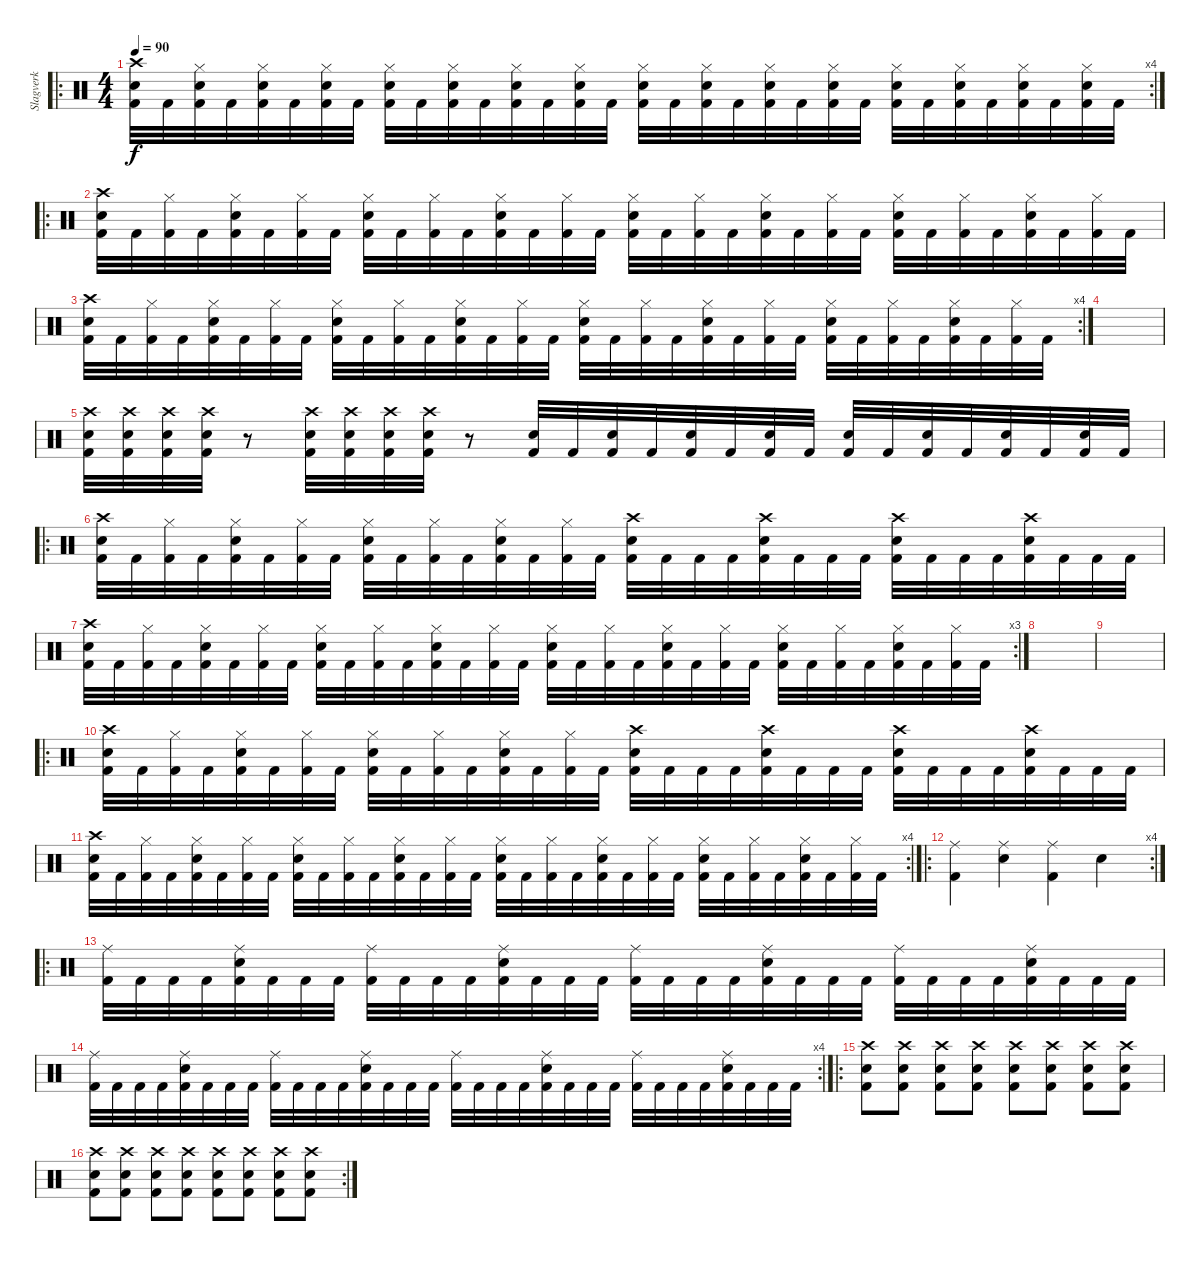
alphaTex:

\track ("Slagverk" "Slagverk") {instrument percussion}
\staff {score}
\articulation defaults
\ro
\rc 4
\ts (4 4)
\tempo 90
\clef neutral
\ks c
("Crash high (hit)" "Snare (hit) 2" "Kick (hit) 2").32{dy f} "Kick (hit) 2".32 ("Hi-Hat (closed)" "Snare (hit) 2" "Kick (hit) 2").32 "Kick (hit) 2".32 ("Hi-Hat (closed)" "Snare (hit) 2" "Kick (hit) 2").32 "Kick (hit) 2".32 ("Hi-Hat (closed)" "Snare (hit) 2" "Kick (hit) 2").32 "Kick (hit) 2".32 ("Hi-Hat (closed)" "Snare (hit) 2" "Kick (hit) 2").32 "Kick (hit) 2".32 ("Hi-Hat (closed)" "Snare (hit) 2" "Kick (hit) 2").32 "Kick (hit) 2".32 ("Hi-Hat (closed)" "Snare (hit) 2" "Kick (hit) 2").32 "Kick (hit) 2".32 ("Hi-Hat (closed)" "Snare (hit) 2" "Kick (hit) 2").32 "Kick (hit) 2".32 ("Hi-Hat (closed)" "Snare (hit) 2" "Kick (hit) 2").32 "Kick (hit) 2".32 ("Hi-Hat (closed)" "Snare (hit) 2" "Kick (hit) 2").32 "Kick (hit) 2".32 ("Hi-Hat (closed)" "Snare (hit) 2" "Kick (hit) 2").32 "Kick (hit) 2".32 ("Hi-Hat (closed)" "Snare (hit) 2" "Kick (hit) 2").32 "Kick (hit) 2".32 ("Hi-Hat (closed)" "Snare (hit) 2" "Kick (hit) 2").32 "Kick (hit) 2".32 ("Hi-Hat (closed)" "Snare (hit) 2" "Kick (hit) 2").32 "Kick (hit) 2".32 ("Hi-Hat (closed)" "Snare (hit) 2" "Kick (hit) 2").32 "Kick (hit) 2".32 ("Hi-Hat (closed)" "Snare (hit) 2" "Kick (hit) 2").32 "Kick (hit) 2".32 |
\ro
("Crash high (hit)" "Snare (hit) 2" "Kick (hit) 2").32 "Kick (hit) 2".32 ("Hi-Hat (closed)" "Kick (hit) 2").32 "Kick (hit) 2".32 ("Hi-Hat (closed)" "Snare (hit) 2" "Kick (hit) 2").32 "Kick (hit) 2".32 ("Hi-Hat (closed)" "Kick (hit) 2").32 "Kick (hit) 2".32 ("Hi-Hat (closed)" "Snare (hit) 2" "Kick (hit) 2").32 "Kick (hit) 2".32 ("Hi-Hat (closed)" "Kick (hit) 2").32 "Kick (hit) 2".32 ("Hi-Hat (closed)" "Snare (hit) 2" "Kick (hit) 2").32 "Kick (hit) 2".32 ("Hi-Hat (closed)" "Kick (hit) 2").32 "Kick (hit) 2".32 ("Hi-Hat (closed)" "Snare (hit) 2" "Kick (hit) 2").32 "Kick (hit) 2".32 ("Hi-Hat (closed)" "Kick (hit) 2").32 "Kick (hit) 2".32 ("Hi-Hat (closed)" "Snare (hit) 2" "Kick (hit) 2").32 "Kick (hit) 2".32 ("Hi-Hat (closed)" "Kick (hit) 2").32 "Kick (hit) 2".32 ("Hi-Hat (closed)" "Snare (hit) 2" "Kick (hit) 2").32 "Kick (hit) 2".32 ("Hi-Hat (closed)" "Kick (hit) 2").32 "Kick (hit) 2".32 ("Hi-Hat (closed)" "Snare (hit) 2" "Kick (hit) 2").32 "Kick (hit) 2".32 ("Hi-Hat (closed)" "Kick (hit) 2").32 "Kick (hit) 2".32 |
\rc 4
("Crash high (hit)" "Snare (hit) 2" "Kick (hit) 2").32 "Kick (hit) 2".32 ("Hi-Hat (closed)" "Kick (hit) 2").32 "Kick (hit) 2".32 ("Hi-Hat (closed)" "Snare (hit) 2" "Kick (hit) 2").32 "Kick (hit) 2".32 ("Hi-Hat (closed)" "Kick (hit) 2").32 "Kick (hit) 2".32 ("Hi-Hat (closed)" "Snare (hit) 2" "Kick (hit) 2").32 "Kick (hit) 2".32 ("Hi-Hat (closed)" "Kick (hit) 2").32 "Kick (hit) 2".32 ("Hi-Hat (closed)" "Snare (hit) 2" "Kick (hit) 2").32 "Kick (hit) 2".32 ("Hi-Hat (closed)" "Kick (hit) 2").32 "Kick (hit) 2".32 ("Hi-Hat (closed)" "Snare (hit) 2" "Kick (hit) 2").32 "Kick (hit) 2".32 ("Hi-Hat (closed)" "Kick (hit) 2").32 "Kick (hit) 2".32 ("Hi-Hat (closed)" "Snare (hit) 2" "Kick (hit) 2").32 "Kick (hit) 2".32 ("Hi-Hat (closed)" "Kick (hit) 2").32 "Kick (hit) 2".32 ("Hi-Hat (closed)" "Snare (hit) 2" "Kick (hit) 2").32 "Kick (hit) 2".32 ("Hi-Hat (closed)" "Kick (hit) 2").32 "Kick (hit) 2".32 ("Hi-Hat (closed)" "Snare (hit) 2" "Kick (hit) 2").32 "Kick (hit) 2".32 ("Hi-Hat (closed)" "Kick (hit) 2").32 "Kick (hit) 2".32 |
|
("Crash high (hit)" "Snare (hit) 2" "Kick (hit) 2").32 ("Crash high (hit)" "Snare (hit) 2" "Kick (hit) 2").32 ("Crash high (hit)" "Snare (hit) 2" "Kick (hit) 2").32 ("Crash high (hit)" "Snare (hit) 2" "Kick (hit) 2").32 r.8 ("Crash high (hit)" "Snare (hit) 2" "Kick (hit) 2").32 ("Crash high (hit)" "Snare (hit) 2" "Kick (hit) 2").32 ("Crash high (hit)" "Snare (hit) 2" "Kick (hit) 2").32 ("Crash high (hit)" "Snare (hit) 2" "Kick (hit) 2").32 r.8 ("Snare (hit) 2" "Kick (hit) 2").32 "Kick (hit) 2".32 ("Snare (hit) 2" "Kick (hit) 2").32 "Kick (hit) 2".32 ("Snare (hit) 2" "Kick (hit) 2").32 "Kick (hit) 2".32 ("Snare (hit) 2" "Kick (hit) 2").32 "Kick (hit) 2".32 ("Snare (hit) 2" "Kick (hit) 2").32 "Kick (hit) 2".32 ("Snare (hit) 2" "Kick (hit) 2").32 "Kick (hit) 2".32 ("Snare (hit) 2" "Kick (hit) 2").32 "Kick (hit) 2".32 ("Snare (hit) 2" "Kick (hit) 2").32 "Kick (hit) 2".32 |
\ro
("Crash high (hit)" "Snare (hit) 2" "Kick (hit) 2").32 "Kick (hit) 2".32 ("Hi-Hat (closed)" "Kick (hit) 2").32 "Kick (hit) 2".32 ("Hi-Hat (closed)" "Snare (hit) 2" "Kick (hit) 2").32 "Kick (hit) 2".32 ("Hi-Hat (closed)" "Kick (hit) 2").32 "Kick (hit) 2".32 ("Hi-Hat (closed)" "Snare (hit) 2" "Kick (hit) 2").32 "Kick (hit) 2".32 ("Hi-Hat (closed)" "Kick (hit) 2").32 "Kick (hit) 2".32 ("Hi-Hat (closed)" "Snare (hit) 2" "Kick (hit) 2").32 "Kick (hit) 2".32 ("Hi-Hat (closed)" "Kick (hit) 2").32 "Kick (hit) 2".32 ("Crash high (hit)" "Snare (hit) 2" "Kick (hit) 2").32 "Kick (hit) 2".32 "Kick (hit) 2".32 "Kick (hit) 2".32 ("Crash high (hit)" "Snare (hit) 2" "Kick (hit) 2").32 "Kick (hit) 2".32 "Kick (hit) 2".32 "Kick (hit) 2".32 ("Crash high (hit)" "Snare (hit) 2" "Kick (hit) 2").32 "Kick (hit) 2".32 "Kick (hit) 2".32 "Kick (hit) 2".32 ("Crash high (hit)" "Snare (hit) 2" "Kick (hit) 2").32 "Kick (hit) 2".32 "Kick (hit) 2".32 "Kick (hit) 2".32 |
\rc 3
("Crash high (hit)" "Snare (hit) 2" "Kick (hit) 2").32 "Kick (hit) 2".32 ("Hi-Hat (closed)" "Kick (hit) 2").32 "Kick (hit) 2".32 ("Hi-Hat (closed)" "Snare (hit) 2" "Kick (hit) 2").32 "Kick (hit) 2".32 ("Hi-Hat (closed)" "Kick (hit) 2").32 "Kick (hit) 2".32 ("Hi-Hat (closed)" "Snare (hit) 2" "Kick (hit) 2").32 "Kick (hit) 2".32 ("Hi-Hat (closed)" "Kick (hit) 2").32 "Kick (hit) 2".32 ("Hi-Hat (closed)" "Snare (hit) 2" "Kick (hit) 2").32 "Kick (hit) 2".32 ("Hi-Hat (closed)" "Kick (hit) 2").32 "Kick (hit) 2".32 ("Hi-Hat (closed)" "Snare (hit) 2" "Kick (hit) 2").32 "Kick (hit) 2".32 ("Hi-Hat (closed)" "Kick (hit) 2").32 "Kick (hit) 2".32 ("Hi-Hat (closed)" "Snare (hit) 2" "Kick (hit) 2").32 "Kick (hit) 2".32 ("Hi-Hat (closed)" "Kick (hit) 2").32 "Kick (hit) 2".32 ("Hi-Hat (closed)" "Snare (hit) 2" "Kick (hit) 2").32 "Kick (hit) 2".32 ("Hi-Hat (closed)" "Kick (hit) 2").32 "Kick (hit) 2".32 ("Hi-Hat (closed)" "Snare (hit) 2" "Kick (hit) 2").32 "Kick (hit) 2".32 ("Hi-Hat (closed)" "Kick (hit) 2").32 "Kick (hit) 2".32 |
|
|
\ro
("Crash high (hit)" "Snare (hit) 2" "Kick (hit) 2").32 "Kick (hit) 2".32 ("Hi-Hat (closed)" "Kick (hit) 2").32 "Kick (hit) 2".32 ("Hi-Hat (closed)" "Snare (hit) 2" "Kick (hit) 2").32 "Kick (hit) 2".32 ("Hi-Hat (closed)" "Kick (hit) 2").32 "Kick (hit) 2".32 ("Hi-Hat (closed)" "Snare (hit) 2" "Kick (hit) 2").32 "Kick (hit) 2".32 ("Hi-Hat (closed)" "Kick (hit) 2").32 "Kick (hit) 2".32 ("Hi-Hat (closed)" "Snare (hit) 2" "Kick (hit) 2").32 "Kick (hit) 2".32 ("Hi-Hat (closed)" "Kick (hit) 2").32 "Kick (hit) 2".32 ("Crash high (hit)" "Snare (hit) 2" "Kick (hit) 2").32 "Kick (hit) 2".32 "Kick (hit) 2".32 "Kick (hit) 2".32 ("Crash high (hit)" "Snare (hit) 2" "Kick (hit) 2").32 "Kick (hit) 2".32 "Kick (hit) 2".32 "Kick (hit) 2".32 ("Crash high (hit)" "Snare (hit) 2" "Kick (hit) 2").32 "Kick (hit) 2".32 "Kick (hit) 2".32 "Kick (hit) 2".32 ("Crash high (hit)" "Snare (hit) 2" "Kick (hit) 2").32 "Kick (hit) 2".32 "Kick (hit) 2".32 "Kick (hit) 2".32 |
\rc 4
("Crash high (hit)" "Snare (hit) 2" "Kick (hit) 2").32 "Kick (hit) 2".32 ("Hi-Hat (closed)" "Kick (hit) 2").32 "Kick (hit) 2".32 ("Hi-Hat (closed)" "Snare (hit) 2" "Kick (hit) 2").32 "Kick (hit) 2".32 ("Hi-Hat (closed)" "Kick (hit) 2").32 "Kick (hit) 2".32 ("Hi-Hat (closed)" "Snare (hit) 2" "Kick (hit) 2").32 "Kick (hit) 2".32 ("Hi-Hat (closed)" "Kick (hit) 2").32 "Kick (hit) 2".32 ("Hi-Hat (closed)" "Snare (hit) 2" "Kick (hit) 2").32 "Kick (hit) 2".32 ("Hi-Hat (closed)" "Kick (hit) 2").32 "Kick (hit) 2".32 ("Hi-Hat (closed)" "Snare (hit) 2" "Kick (hit) 2").32 "Kick (hit) 2".32 ("Hi-Hat (closed)" "Kick (hit) 2").32 "Kick (hit) 2".32 ("Hi-Hat (closed)" "Snare (hit) 2" "Kick (hit) 2").32 "Kick (hit) 2".32 ("Hi-Hat (closed)" "Kick (hit) 2").32 "Kick (hit) 2".32 ("Hi-Hat (closed)" "Snare (hit) 2" "Kick (hit) 2").32 "Kick (hit) 2".32 ("Hi-Hat (closed)" "Kick (hit) 2").32 "Kick (hit) 2".32 ("Hi-Hat (closed)" "Snare (hit) 2" "Kick (hit) 2").32 "Kick (hit) 2".32 ("Hi-Hat (closed)" "Kick (hit) 2").32 "Kick (hit) 2".32 |
\ro
\rc 4
("Ride (middle)" "Kick (hit) 2").4 ("Ride (middle)" "Snare (hit) 2").4 ("Ride (middle)" "Kick (hit) 2").4 "Snare (hit) 2".4 |
\ro
("Ride (middle)" "Kick (hit) 2").32 "Kick (hit) 2".32 "Kick (hit) 2".32 "Kick (hit) 2".32 ("Ride (middle)" "Snare (hit) 2" "Kick (hit) 2").32 "Kick (hit) 2".32 "Kick (hit) 2".32 "Kick (hit) 2".32 ("Ride (middle)" "Kick (hit) 2").32 "Kick (hit) 2".32 "Kick (hit) 2".32 "Kick (hit) 2".32 ("Ride (middle)" "Snare (hit) 2" "Kick (hit) 2").32 "Kick (hit) 2".32 "Kick (hit) 2".32 "Kick (hit) 2".32 ("Ride (middle)" "Kick (hit) 2").32 "Kick (hit) 2".32 "Kick (hit) 2".32 "Kick (hit) 2".32 ("Ride (middle)" "Snare (hit) 2" "Kick (hit) 2").32 "Kick (hit) 2".32 "Kick (hit) 2".32 "Kick (hit) 2".32 ("Ride (middle)" "Kick (hit) 2").32 "Kick (hit) 2".32 "Kick (hit) 2".32 "Kick (hit) 2".32 ("Ride (middle)" "Snare (hit) 2" "Kick (hit) 2").32 "Kick (hit) 2".32 "Kick (hit) 2".32 "Kick (hit) 2".32 |
\rc 4
("Ride (middle)" "Kick (hit) 2").32 "Kick (hit) 2".32 "Kick (hit) 2".32 "Kick (hit) 2".32 ("Ride (middle)" "Snare (hit) 2" "Kick (hit) 2").32 "Kick (hit) 2".32 "Kick (hit) 2".32 "Kick (hit) 2".32 ("Ride (middle)" "Kick (hit) 2").32 "Kick (hit) 2".32 "Kick (hit) 2".32 "Kick (hit) 2".32 ("Ride (middle)" "Snare (hit) 2" "Kick (hit) 2").32 "Kick (hit) 2".32 "Kick (hit) 2".32 "Kick (hit) 2".32 ("Ride (middle)" "Kick (hit) 2").32 "Kick (hit) 2".32 "Kick (hit) 2".32 "Kick (hit) 2".32 ("Ride (middle)" "Snare (hit) 2" "Kick (hit) 2").32 "Kick (hit) 2".32 "Kick (hit) 2".32 "Kick (hit) 2".32 ("Ride (middle)" "Kick (hit) 2").32 "Kick (hit) 2".32 "Kick (hit) 2".32 "Kick (hit) 2".32 ("Ride (middle)" "Snare (hit) 2" "Kick (hit) 2").32 "Kick (hit) 2".32 "Kick (hit) 2".32 "Kick (hit) 2".32 |
\ro
("Crash high (hit)" "Snare (hit) 2" "Kick (hit) 2").8 ("Crash high (hit)" "Snare (hit) 2" "Kick (hit) 2").8 ("Crash high (hit)" "Snare (hit) 2" "Kick (hit) 2").8 ("Crash high (hit)" "Snare (hit) 2" "Kick (hit) 2").8 ("Crash high (hit)" "Snare (hit) 2" "Kick (hit) 2").8 ("Crash high (hit)" "Snare (hit) 2" "Kick (hit) 2").8 ("Crash high (hit)" "Snare (hit) 2" "Kick (hit) 2").8 ("Crash high (hit)" "Snare (hit) 2" "Kick (hit) 2").8 |
\rc 2
("Crash high (hit)" "Snare (hit) 2" "Kick (hit) 2").8 ("Crash high (hit)" "Snare (hit) 2" "Kick (hit) 2").8 ("Crash high (hit)" "Snare (hit) 2" "Kick (hit) 2").8 ("Crash high (hit)" "Snare (hit) 2" "Kick (hit) 2").8 ("Crash high (hit)" "Snare (hit) 2" "Kick (hit) 2").8 ("Crash high (hit)" "Snare (hit) 2" "Kick (hit) 2").8 ("Crash high (hit)" "Snare (hit) 2" "Kick (hit) 2").8 ("Crash high (hit)" "Snare (hit) 2" "Kick (hit) 2").8
